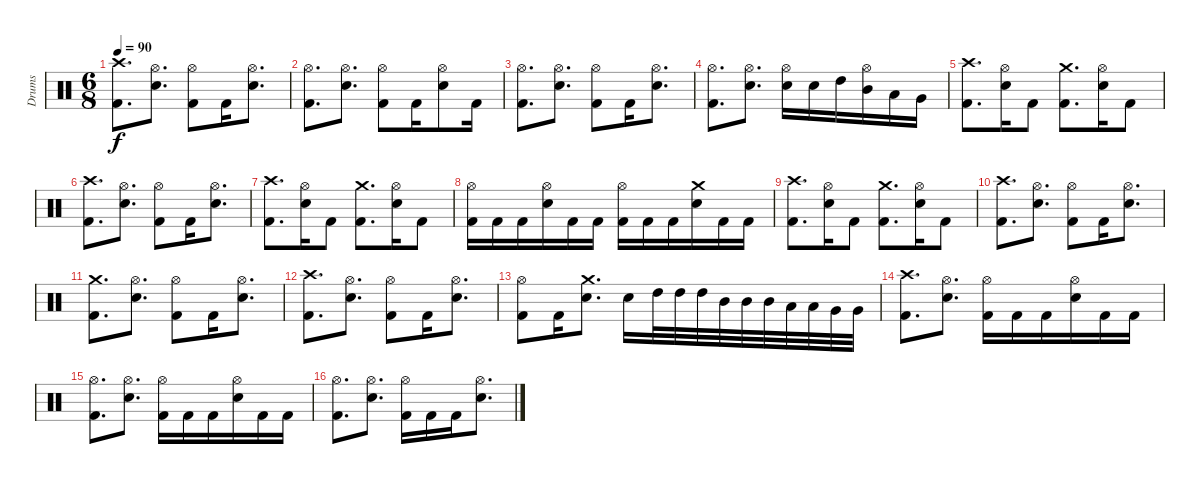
\track ("Drums" "Drums") {instrument percussion}
\staff {score}
\articulation defaults
\ts (6 8)
\tempo 90
\clef neutral
\ks c
("Kick (hit) 2" "Crash high (hit)").8{d dy f} ("Electric Snare (hit)" "Hi-Hat (open)").8{d} ("Kick (hit) 2" "Hi-Hat (open)").8 "Kick (hit) 2".16 ("Electric Snare (hit)" "Hi-Hat (open)").8{d} |
("Kick (hit) 2" "Hi-Hat (open)").8{d} ("Electric Snare (hit)" "Hi-Hat (open)").8{d} ("Kick (hit) 2" "Hi-Hat (open)").8 "Kick (hit) 2".16 ("Electric Snare (hit)" "Hi-Hat (open)").8 "Kick (hit) 2".16 |
("Kick (hit) 2" "Hi-Hat (open)").8{d} ("Electric Snare (hit)" "Hi-Hat (open)").8{d} ("Kick (hit) 2" "Hi-Hat (open)").8 "Kick (hit) 2".16 ("Electric Snare (hit)" "Hi-Hat (open)").8{d} |
("Kick (hit) 2" "Hi-Hat (open)").8{d} ("Electric Snare (hit)" "Hi-Hat (open)").8{d} ("Electric Snare (hit)" "Hi-Hat (open)").16 "Electric Snare (hit)".16 "High Tom (hit)".16 ("Mid Tom (hit)" "Hi-Hat (open)").16 "Low Tom (hit)".16 "Very Low Tom (hit)".16 |
("Kick (hit) 2" "Crash high (hit)").8{d} ("Electric Snare (hit)" "Hi-Hat (open)").16 "Kick (hit) 2".8 ("Kick (hit) 2" "Crash medium (hit)").8{d} ("Electric Snare (hit)" "Hi-Hat (open)").16 "Kick (hit) 2".8 |
("Kick (hit) 2" "Crash high (hit)").8{d} ("Electric Snare (hit)" "Hi-Hat (open)").8{d} ("Kick (hit) 2" "Hi-Hat (open)").8 "Kick (hit) 2".16 ("Electric Snare (hit)" "Hi-Hat (open)").8{d} |
("Kick (hit) 2" "Crash high (hit)").8{d} ("Electric Snare (hit)" "Hi-Hat (open)").16 "Kick (hit) 2".8 ("Kick (hit) 2" "Crash medium (hit)").8{d} ("Electric Snare (hit)" "Hi-Hat (open)").16 "Kick (hit) 2".8 |
("Kick (hit) 2" "Hi-Hat (open)").16 "Kick (hit) 2".16 "Kick (hit) 2".16 ("Electric Snare (hit)" "Hi-Hat (open)").16 "Kick (hit) 2".16 "Kick (hit) 2".16 ("Kick (hit) 2" "Hi-Hat (open)").16 "Kick (hit) 2".16 "Kick (hit) 2".16 ("Electric Snare (hit)" "Crash medium (hit)").16 "Kick (hit) 2".16 "Kick (hit) 2".16 |
("Kick (hit) 2" "Crash high (hit)").8{d} ("Electric Snare (hit)" "Hi-Hat (open)").16 "Kick (hit) 2".8 ("Kick (hit) 2" "Crash medium (hit)").8{d} ("Electric Snare (hit)" "Hi-Hat (open)").16 "Kick (hit) 2".8 |
("Kick (hit) 2" "Crash high (hit)").8{d} ("Electric Snare (hit)" "Hi-Hat (open)").8{d} ("Kick (hit) 2" "Hi-Hat (open)").8 "Kick (hit) 2".16 ("Electric Snare (hit)" "Hi-Hat (open)").8{d} |
("Kick (hit) 2" "Crash medium (hit)").8{d} ("Electric Snare (hit)" "Hi-Hat (open)").8{d} ("Kick (hit) 2" "Hi-Hat (open)").8 "Kick (hit) 2".16 ("Electric Snare (hit)" "Hi-Hat (open)").8{d} |
("Kick (hit) 2" "Crash high (hit)").8{d} ("Electric Snare (hit)" "Hi-Hat (open)").8{d} ("Kick (hit) 2" "Hi-Hat (open)").8 "Kick (hit) 2".16 ("Electric Snare (hit)" "Hi-Hat (open)").8{d} |
("Kick (hit) 2" "Hi-Hat (open)").8 "Kick (hit) 2".16 ("Electric Snare (hit)" "Crash medium (hit)").8{d} "Electric Snare (hit)".16 "High Tom (hit)".32 "High Tom (hit)".32 "High Tom (hit)".32 "Mid Tom (hit)".32 "Mid Tom (hit)".32 "Mid Tom (hit)".32 "Low Tom (hit)".32 "Low Tom (hit)".32 "Very Low Tom (hit)".32 "Very Low Tom (hit)".32 |
("Kick (hit) 2" "Crash high (hit)").8{d} ("Electric Snare (hit)" "Hi-Hat (open)").8{d} ("Kick (hit) 2" "Hi-Hat (open)").16 "Kick (hit) 2".16 "Kick (hit) 2".16 ("Electric Snare (hit)" "Hi-Hat (open)").16 "Kick (hit) 2".16 "Kick (hit) 2".16 |
("Kick (hit) 2" "Hi-Hat (open)").8{d} ("Electric Snare (hit)" "Hi-Hat (open)").8{d} ("Kick (hit) 2" "Hi-Hat (open)").16 "Kick (hit) 2".16 "Kick (hit) 2".16 ("Electric Snare (hit)" "Hi-Hat (open)").16 "Kick (hit) 2".16 "Kick (hit) 2".16 |
("Kick (hit) 2" "Hi-Hat (open)").8{d} ("Electric Snare (hit)" "Hi-Hat (open)").8{d} ("Kick (hit) 2" "Hi-Hat (open)").16 "Kick (hit) 2".16 "Kick (hit) 2".16 ("Electric Snare (hit)" "Hi-Hat (open)").8{d}
